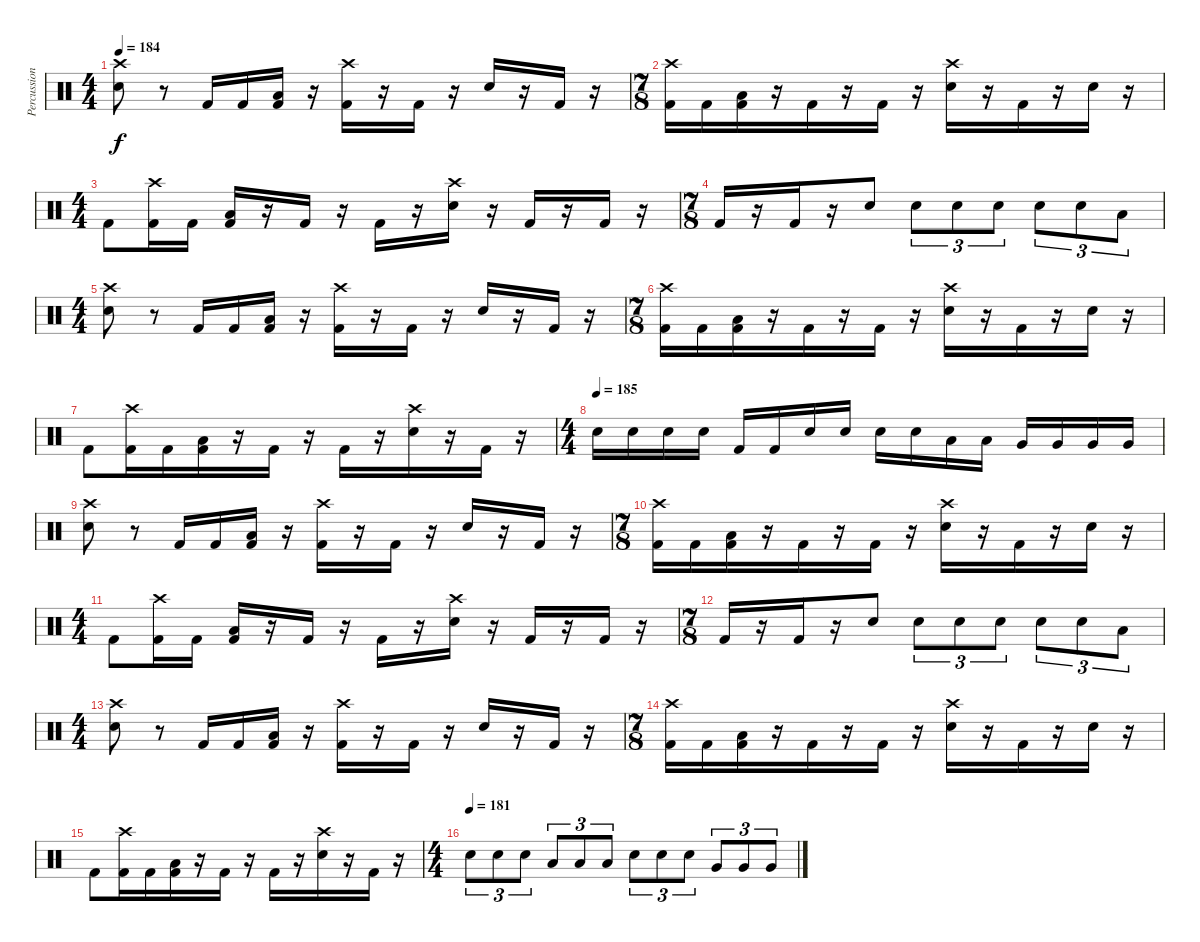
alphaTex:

\track ("Percussion" "Percussion") {instrument percussion}
\staff {score}
\articulation defaults
\ts (4 4)
\tempo 184
\clef neutral
\ks c
("Crash high (hit)" "Electric Snare (hit)").8{dy f} r.8 "Kick (hit) 2".16 "Kick (hit) 2".16 ("Low Tom (hit)" "Kick (hit) 2").16 r.16 ("Crash high (hit)" "Kick (hit) 2").16 r.16 "Kick (hit) 2".16 r.16 "Electric Snare (hit)".16 r.16 "Kick (hit) 2".16 r.16 |
\ts (7 8)
("Crash high (hit)" "Kick (hit) 2").16 "Kick (hit) 2".16 ("Low Tom (hit)" "Kick (hit) 2").16 r.16 "Kick (hit) 2".16 r.16 "Kick (hit) 2".16 r.16 ("Crash high (hit)" "Electric Snare (hit)").16 r.16 "Kick (hit) 2".16 r.16 "Electric Snare (hit)".16 r.16 |
\ts (4 4)
"Kick (hit) 2".8 ("Crash high (hit)" "Kick (hit) 2").16 "Kick (hit) 2".16 ("Low Tom (hit)" "Kick (hit) 2").16 r.16 "Kick (hit) 2".16 r.16 "Kick (hit) 2".16 r.16 ("Crash high (hit)" "Electric Snare (hit)").16 r.16 "Kick (hit) 2".16 r.16 "Kick (hit) 2".16 r.16 |
\ts (7 8)
"Kick (hit) 2".16 r.16 "Kick (hit) 2".16 r.16 "Electric Snare (hit)".8 "Electric Snare (hit)".8{tu (3 2)} "Electric Snare (hit)".8{tu (3 2)} "Electric Snare (hit)".8{tu (3 2)} "Electric Snare (hit)".8{tu (3 2)} "Electric Snare (hit)".8{tu (3 2)} "Low Tom (hit)".8{tu (3 2)} |
\ts (4 4)
("Crash high (hit)" "Electric Snare (hit)").8 r.8 "Kick (hit) 2".16 "Kick (hit) 2".16 ("Low Tom (hit)" "Kick (hit) 2").16 r.16 ("Crash high (hit)" "Kick (hit) 2").16 r.16 "Kick (hit) 2".16 r.16 "Electric Snare (hit)".16 r.16 "Kick (hit) 2".16 r.16 |
\ts (7 8)
("Crash high (hit)" "Kick (hit) 2").16 "Kick (hit) 2".16 ("Low Tom (hit)" "Kick (hit) 2").16 r.16 "Kick (hit) 2".16 r.16 "Kick (hit) 2".16 r.16 ("Crash high (hit)" "Electric Snare (hit)").16 r.16 "Kick (hit) 2".16 r.16 "Electric Snare (hit)".16 r.16 |
"Kick (hit) 2".8 ("Crash high (hit)" "Kick (hit) 2").16 "Kick (hit) 2".16 ("Low Tom (hit)" "Kick (hit) 2").16 r.16 "Kick (hit) 2".16 r.16 "Kick (hit) 2".16 r.16 ("Crash high (hit)" "Electric Snare (hit)").16 r.16 "Kick (hit) 2".16 r.16 |
\ts (4 4)
\tempo (185)
"Electric Snare (hit)".16 "Electric Snare (hit)".16 "Electric Snare (hit)".16 "Electric Snare (hit)".16 "Kick (hit) 2".16 "Kick (hit) 2".16 "Electric Snare (hit)".16 "Electric Snare (hit)".16 "Electric Snare (hit)".16 "Electric Snare (hit)".16 "Low Tom (hit)".16 "Low Tom (hit)".16 "Very Low Tom (hit)".16 "Very Low Tom (hit)".16 "Very Low Tom (hit)".16 "Very Low Tom (hit)".16 |
("Crash high (hit)" "Electric Snare (hit)").8 r.8 "Kick (hit) 2".16 "Kick (hit) 2".16 ("Low Tom (hit)" "Kick (hit) 2").16 r.16 ("Crash high (hit)" "Kick (hit) 2").16 r.16 "Kick (hit) 2".16 r.16 "Electric Snare (hit)".16 r.16 "Kick (hit) 2".16 r.16 |
\ts (7 8)
("Crash high (hit)" "Kick (hit) 2").16 "Kick (hit) 2".16 ("Low Tom (hit)" "Kick (hit) 2").16 r.16 "Kick (hit) 2".16 r.16 "Kick (hit) 2".16 r.16 ("Crash high (hit)" "Electric Snare (hit)").16 r.16 "Kick (hit) 2".16 r.16 "Electric Snare (hit)".16 r.16 |
\ts (4 4)
"Kick (hit) 2".8 ("Crash high (hit)" "Kick (hit) 2").16 "Kick (hit) 2".16 ("Low Tom (hit)" "Kick (hit) 2").16 r.16 "Kick (hit) 2".16 r.16 "Kick (hit) 2".16 r.16 ("Crash high (hit)" "Electric Snare (hit)").16 r.16 "Kick (hit) 2".16 r.16 "Kick (hit) 2".16 r.16 |
\ts (7 8)
"Kick (hit) 2".16 r.16 "Kick (hit) 2".16 r.16 "Electric Snare (hit)".8 "Electric Snare (hit)".8{tu (3 2)} "Electric Snare (hit)".8{tu (3 2)} "Electric Snare (hit)".8{tu (3 2)} "Electric Snare (hit)".8{tu (3 2)} "Electric Snare (hit)".8{tu (3 2)} "Low Tom (hit)".8{tu (3 2)} |
\ts (4 4)
("Crash high (hit)" "Electric Snare (hit)").8 r.8 "Kick (hit) 2".16 "Kick (hit) 2".16 ("Low Tom (hit)" "Kick (hit) 2").16 r.16 ("Crash high (hit)" "Kick (hit) 2").16 r.16 "Kick (hit) 2".16 r.16 "Electric Snare (hit)".16 r.16 "Kick (hit) 2".16 r.16 |
\ts (7 8)
("Crash high (hit)" "Kick (hit) 2").16 "Kick (hit) 2".16 ("Low Tom (hit)" "Kick (hit) 2").16 r.16 "Kick (hit) 2".16 r.16 "Kick (hit) 2".16 r.16 ("Crash high (hit)" "Electric Snare (hit)").16 r.16 "Kick (hit) 2".16 r.16 "Electric Snare (hit)".16 r.16 |
"Kick (hit) 2".8 ("Crash high (hit)" "Kick (hit) 2").16 "Kick (hit) 2".16 ("Low Tom (hit)" "Kick (hit) 2").16 r.16 "Kick (hit) 2".16 r.16 "Kick (hit) 2".16 r.16 ("Crash high (hit)" "Electric Snare (hit)").16 r.16 "Kick (hit) 2".16 r.16 |
\ts (4 4)
\tempo (181)
"Electric Snare (hit)".8{tu (3 2)} "Electric Snare (hit)".8{tu (3 2)} "Electric Snare (hit)".8{tu (3 2)} "Low Tom (hit)".8{tu (3 2)} "Low Tom (hit)".8{tu (3 2)} "Low Tom (hit)".8{tu (3 2)} "Electric Snare (hit)".8{tu (3 2)} "Electric Snare (hit)".8{tu (3 2)} "Electric Snare (hit)".8{tu (3 2)} "Very Low Tom (hit)".8{tu (3 2)} "Very Low Tom (hit)".8{tu (3 2)} "Very Low Tom (hit)".8{tu (3 2)}
